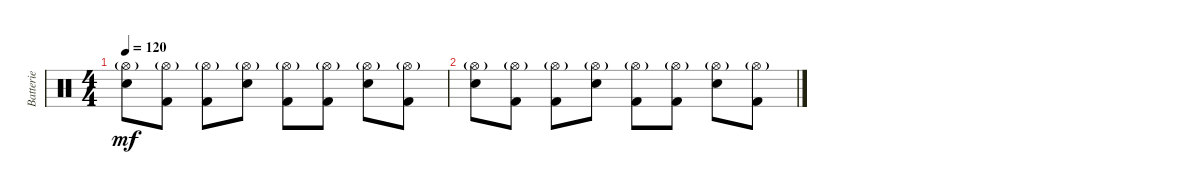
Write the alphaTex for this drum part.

\track ("Batterie" "Batterie") {instrument percussion}
\staff {score}
\articulation defaults
\ts (4 4)
\tempo 120
\clef neutral
\ks c
("Hi-Hat (open)"{g} "Snare (hit) 2").8{dy mf} ("Hi-Hat (open)"{g} "Kick (hit) 2").8 ("Hi-Hat (open)"{g} "Kick (hit) 2").8 ("Hi-Hat (open)"{g} "Snare (hit) 2").8 ("Hi-Hat (open)"{g} "Kick (hit) 2").8 ("Hi-Hat (open)"{g} "Kick (hit) 2").8 ("Hi-Hat (open)"{g} "Snare (hit) 2").8 ("Hi-Hat (open)"{g} "Kick (hit) 2").8 |
("Hi-Hat (open)"{g} "Snare (hit) 2").8 ("Hi-Hat (open)"{g} "Kick (hit) 2").8 ("Hi-Hat (open)"{g} "Kick (hit) 2").8 ("Hi-Hat (open)"{g} "Snare (hit) 2").8 ("Hi-Hat (open)"{g} "Kick (hit) 2").8 ("Hi-Hat (open)"{g} "Kick (hit) 2").8 ("Hi-Hat (open)"{g} "Snare (hit) 2").8 ("Hi-Hat (open)"{g} "Kick (hit) 2").8
